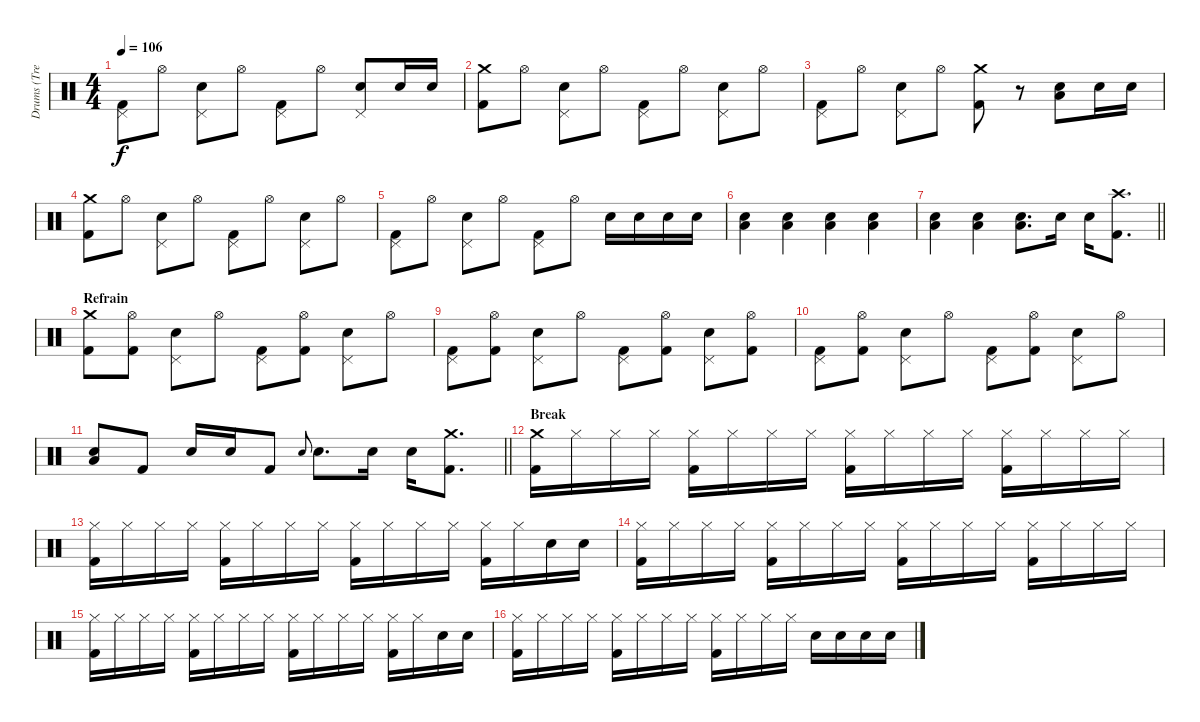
\track ("Drums (Tre Cool)" "Drums (Tre") {instrument percussion}
\staff {score}
\articulation defaults
\ts (4 4)
\tempo 106
\clef neutral
\ks c
("Pedal Hi-Hat (hit)" "Kick (hit) 2").8{dy f} "Hi-Hat (open)".8 ("Pedal Hi-Hat (hit)" "Electric Snare (hit)").8 "Hi-Hat (open)".8 ("Pedal Hi-Hat (hit)" "Kick (hit) 2").8 "Hi-Hat (open)".8 ("Pedal Hi-Hat (hit)" "Electric Snare (hit)").8 "Electric Snare (hit)".16 "Electric Snare (hit)".16 |
("Crash medium (hit)" "Kick (hit) 2").8 "Hi-Hat (open)".8 ("Pedal Hi-Hat (hit)" "Electric Snare (hit)").8 "Hi-Hat (open)".8 ("Pedal Hi-Hat (hit)" "Kick (hit) 2").8 "Hi-Hat (open)".8 ("Pedal Hi-Hat (hit)" "Electric Snare (hit)").8 "Hi-Hat (open)".8 |
("Pedal Hi-Hat (hit)" "Kick (hit) 2").8 "Hi-Hat (open)".8 ("Pedal Hi-Hat (hit)" "Electric Snare (hit)").8 "Hi-Hat (open)".8 ("Crash medium (hit)" "Kick (hit) 2").8 r.8 ("Electric Snare (hit)" "Low Floor Tom (hit)").8 "Electric Snare (hit)".16 "Electric Snare (hit)".16 |
("Crash medium (hit)" "Kick (hit) 2").8 "Hi-Hat (open)".8 ("Pedal Hi-Hat (hit)" "Electric Snare (hit)").8 "Hi-Hat (open)".8 ("Pedal Hi-Hat (hit)" "Kick (hit) 2").8 "Hi-Hat (open)".8 ("Pedal Hi-Hat (hit)" "Electric Snare (hit)").8 "Hi-Hat (open)".8 |
("Pedal Hi-Hat (hit)" "Kick (hit) 2").8 "Hi-Hat (open)".8 ("Pedal Hi-Hat (hit)" "Electric Snare (hit)").8 "Hi-Hat (open)".8 ("Pedal Hi-Hat (hit)" "Kick (hit) 2").8 "Hi-Hat (open)".8 "Electric Snare (hit)".16 "Electric Snare (hit)".16 "Electric Snare (hit)".16 "Electric Snare (hit)".16 |
("Electric Snare (hit)" "Low Floor Tom (hit)").4 ("Electric Snare (hit)" "Low Floor Tom (hit)").4 ("Electric Snare (hit)" "Low Floor Tom (hit)").4 ("Electric Snare (hit)" "Low Floor Tom (hit)").4 |
\barLineRight lightlight
("Electric Snare (hit)" "Low Floor Tom (hit)").4 ("Electric Snare (hit)" "Low Floor Tom (hit)").4 ("Electric Snare (hit)" "Low Floor Tom (hit)").8{d} "Electric Snare (hit)".16 "Electric Snare (hit)".16 ("Crash high (hit)" "Kick (hit) 2").8{d} |
\section ("" "Refrain")
("Crash medium (hit)" "Kick (hit) 2").8 ("Hi-Hat (open)" "Kick (hit) 2").8 ("Pedal Hi-Hat (hit)" "Electric Snare (hit)").8 "Hi-Hat (open)".8 ("Pedal Hi-Hat (hit)" "Kick (hit) 2").8 ("Hi-Hat (open)" "Kick (hit) 2").8 ("Pedal Hi-Hat (hit)" "Electric Snare (hit)").8 "Hi-Hat (open)".8 |
("Pedal Hi-Hat (hit)" "Kick (hit) 2").8 ("Hi-Hat (open)" "Kick (hit) 2").8 ("Pedal Hi-Hat (hit)" "Electric Snare (hit)").8 "Hi-Hat (open)".8 ("Pedal Hi-Hat (hit)" "Kick (hit) 2").8 ("Hi-Hat (open)" "Kick (hit) 2").8 ("Pedal Hi-Hat (hit)" "Electric Snare (hit)").8 ("Hi-Hat (open)" "Kick (hit) 2").8 |
("Pedal Hi-Hat (hit)" "Kick (hit) 2").8 ("Hi-Hat (open)" "Kick (hit) 2").8 ("Pedal Hi-Hat (hit)" "Electric Snare (hit)").8 "Hi-Hat (open)".8 ("Pedal Hi-Hat (hit)" "Kick (hit) 2").8 ("Hi-Hat (open)" "Kick (hit) 2").8 ("Pedal Hi-Hat (hit)" "Electric Snare (hit)").8 "Hi-Hat (open)".8 |
\barLineRight lightlight
("Electric Snare (hit)" "Low Floor Tom (hit)").8 "Kick (hit) 2".8 "Electric Snare (hit)".16 "Electric Snare (hit)".16 "Kick (hit) 2".8 "Electric Snare (hit)".8{gr onbeat} "Electric Snare (hit)".8{d} "Electric Snare (hit)".16 "Electric Snare (hit)".16 ("Crash medium (hit)" "Kick (hit) 2").8{d} |
\section ("" "Break")
("Crash medium (hit)" "Kick (hit) 2").16 "Hi-Hat (closed)".16 "Hi-Hat (closed)".16 "Hi-Hat (closed)".16 ("Hi-Hat (closed)" "Kick (hit) 2").16 "Hi-Hat (closed)".16 "Hi-Hat (closed)".16 "Hi-Hat (closed)".16 ("Hi-Hat (closed)" "Kick (hit) 2").16 "Hi-Hat (closed)".16 "Hi-Hat (closed)".16 "Hi-Hat (closed)".16 ("Hi-Hat (closed)" "Kick (hit) 2").16 "Hi-Hat (closed)".16 "Hi-Hat (closed)".16 "Hi-Hat (closed)".16 |
("Hi-Hat (closed)" "Kick (hit) 2").16 "Hi-Hat (closed)".16 "Hi-Hat (closed)".16 "Hi-Hat (closed)".16 ("Hi-Hat (closed)" "Kick (hit) 2").16 "Hi-Hat (closed)".16 "Hi-Hat (closed)".16 "Hi-Hat (closed)".16 ("Hi-Hat (closed)" "Kick (hit) 2").16 "Hi-Hat (closed)".16 "Hi-Hat (closed)".16 "Hi-Hat (closed)".16 ("Hi-Hat (closed)" "Kick (hit) 2").16 "Hi-Hat (closed)".16 "Electric Snare (hit)".16 "Electric Snare (hit)".16 |
("Hi-Hat (closed)" "Kick (hit) 2").16 "Hi-Hat (closed)".16 "Hi-Hat (closed)".16 "Hi-Hat (closed)".16 ("Hi-Hat (closed)" "Kick (hit) 2").16 "Hi-Hat (closed)".16 "Hi-Hat (closed)".16 "Hi-Hat (closed)".16 ("Hi-Hat (closed)" "Kick (hit) 2").16 "Hi-Hat (closed)".16 "Hi-Hat (closed)".16 "Hi-Hat (closed)".16 ("Hi-Hat (closed)" "Kick (hit) 2").16 "Hi-Hat (closed)".16 "Hi-Hat (closed)".16 "Hi-Hat (closed)".16 |
("Hi-Hat (closed)" "Kick (hit) 2").16 "Hi-Hat (closed)".16 "Hi-Hat (closed)".16 "Hi-Hat (closed)".16 ("Hi-Hat (closed)" "Kick (hit) 2").16 "Hi-Hat (closed)".16 "Hi-Hat (closed)".16 "Hi-Hat (closed)".16 ("Hi-Hat (closed)" "Kick (hit) 2").16 "Hi-Hat (closed)".16 "Hi-Hat (closed)".16 "Hi-Hat (closed)".16 ("Hi-Hat (closed)" "Kick (hit) 2").16 "Hi-Hat (closed)".16 "Electric Snare (hit)".16 "Electric Snare (hit)".16 |
("Hi-Hat (closed)" "Kick (hit) 2").16 "Hi-Hat (closed)".16 "Hi-Hat (closed)".16 "Hi-Hat (closed)".16 ("Hi-Hat (closed)" "Kick (hit) 2").16 "Hi-Hat (closed)".16 "Hi-Hat (closed)".16 "Hi-Hat (closed)".16 ("Hi-Hat (closed)" "Kick (hit) 2").16 "Hi-Hat (closed)".16 "Hi-Hat (closed)".16 "Hi-Hat (closed)".16 "Electric Snare (hit)".16 "Electric Snare (hit)".16 "Electric Snare (hit)".16 "Electric Snare (hit)".16
